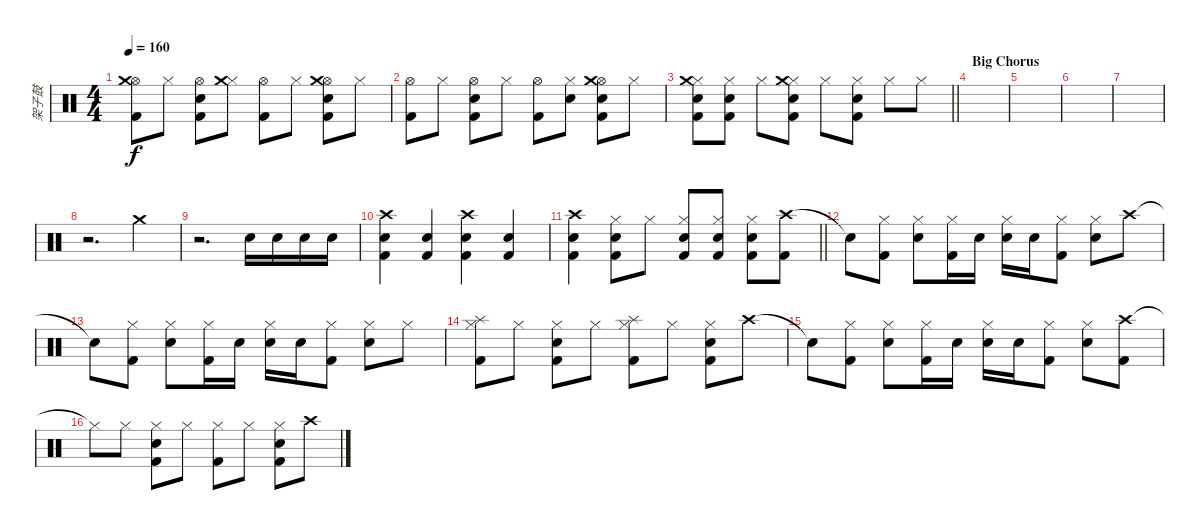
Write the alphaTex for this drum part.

\track ("架子鼓" "架子鼓") {instrument percussion}
\staff {score}
\articulation defaults
\ts (4 4)
\tempo 160
\clef neutral
\ks c
("Hi-Hat (open)" "Crash medium (hit)" "Kick (hit) 2").8{dy f} "Hi-Hat (closed)".8 ("Hi-Hat (open)" "Snare (hit) 2" "Kick (hit) 2").8 ("Hi-Hat (closed)" "Crash medium (hit)").8 ("Hi-Hat (open)" "Kick (hit) 2").8 "Hi-Hat (closed)".8 ("Hi-Hat (open)" "Snare (hit) 2" "Crash medium (hit)" "Kick (hit) 2").8 "Hi-Hat (closed)".8 |
("Hi-Hat (open)" "Kick (hit) 2").8 "Hi-Hat (closed)".8 ("Hi-Hat (open)" "Snare (hit) 2" "Kick (hit) 2").8 "Hi-Hat (closed)".8 ("Hi-Hat (open)" "Kick (hit) 2").8 ("Hi-Hat (closed)" "Snare (hit) 2").8 ("Hi-Hat (open)" "Snare (hit) 2" "Crash medium (hit)" "Kick (hit) 2").8 "Hi-Hat (closed)".8 |
\barLineRight lightlight
("Hi-Hat (closed)" "Snare (hit) 2" "Crash medium (hit)" "Kick (hit) 2").8 ("Hi-Hat (closed)" "Snare (hit) 2" "Kick (hit) 2").8 "Hi-Hat (closed)".8 ("Hi-Hat (closed)" "Snare (hit) 2" "Crash medium (hit)" "Kick (hit) 2").8 "Hi-Hat (closed)".8 ("Hi-Hat (closed)" "Snare (hit) 2" "Kick (hit) 2").8 "Hi-Hat (closed)".8 "Hi-Hat (closed)".8 |
\section ("" "Big Chorus")
|
|
|
|
r.2{d} "Crash medium (hit)".4 |
r.2{d} "Snare (hit) 2".16 "Snare (hit) 2".16 "Snare (hit) 2".16 "Snare (hit) 2".16 |
("Crash high (hit)" "Snare (hit) 2" "Kick (hit) 2").4 ("Snare (hit) 2" "Kick (hit) 2").4 ("Crash high (hit)" "Snare (hit) 2" "Kick (hit) 2").4 ("Snare (hit) 2" "Kick (hit) 2").4 |
\barLineRight lightlight
("Crash high (hit)" "Snare (hit) 2" "Kick (hit) 2").4 ("Hi-Hat (closed)" "Snare (hit) 2" "Kick (hit) 2").8 "Hi-Hat (closed)".8 ("Hi-Hat (closed)" "Snare (hit) 2" "Kick (hit) 2").8 ("Hi-Hat (closed)" "Snare (hit) 2" "Kick (hit) 2").8 ("Hi-Hat (closed)" "Snare (hit) 2" "Kick (hit) 2").8 ("Crash high (hit)" "Kick (hit) 2").8 |
"Snare (hit)"{t}.8 ("Hi-Hat (closed)" "Kick (hit) 2").8 ("Hi-Hat (closed)" "Snare (hit) 2").8 ("Hi-Hat (closed)" "Kick (hit) 2").16 "Snare (hit) 2".16 ("Hi-Hat (closed)" "Snare (hit) 2").16 "Snare (hit) 2".16 ("Hi-Hat (closed)" "Kick (hit) 2").8 ("Hi-Hat (closed)" "Snare (hit) 2").8 "Crash high (hit)".8 |
"Snare (hit)"{t}.8 ("Hi-Hat (closed)" "Kick (hit) 2").8 ("Hi-Hat (closed)" "Snare (hit) 2").8 ("Hi-Hat (closed)" "Kick (hit) 2").16 "Snare (hit) 2".16 ("Hi-Hat (closed)" "Snare (hit) 2").16 "Snare (hit) 2".16 ("Hi-Hat (closed)" "Kick (hit) 2").8 ("Hi-Hat (closed)" "Snare (hit) 2").8 "Hi-Hat (closed)".8 |
("Hi-Hat (closed)" "Splash (hit)" "Kick (hit) 2").8 "Hi-Hat (closed)".8 ("Hi-Hat (closed)" "Snare (hit) 2" "Kick (hit) 2").8 "Hi-Hat (closed)".8 ("Hi-Hat (closed)" "Splash (hit)" "Kick (hit) 2").8 "Hi-Hat (closed)".8 ("Hi-Hat (closed)" "Snare (hit) 2" "Kick (hit) 2").8 "Crash high (hit)".8 |
"Snare (hit)"{t}.8 ("Hi-Hat (closed)" "Kick (hit) 2").8 ("Hi-Hat (closed)" "Snare (hit) 2").8 ("Hi-Hat (closed)" "Kick (hit) 2").16 "Snare (hit) 2".16 ("Hi-Hat (closed)" "Snare (hit) 2").16 "Snare (hit) 2".16 ("Hi-Hat (closed)" "Kick (hit) 2").8 ("Hi-Hat (closed)" "Snare (hit) 2").8 ("Crash high (hit)" "Kick (hit) 2").8 |
"Hi-Hat (closed)"{t}.8 "Hi-Hat (closed)".8 ("Hi-Hat (closed)" "Snare (hit) 2" "Kick (hit) 2").8 "Hi-Hat (closed)".8 ("Hi-Hat (closed)" "Kick (hit) 2").8 "Hi-Hat (closed)".8 ("Hi-Hat (closed)" "Snare (hit) 2" "Kick (hit) 2").8 "Crash high (hit)".8
